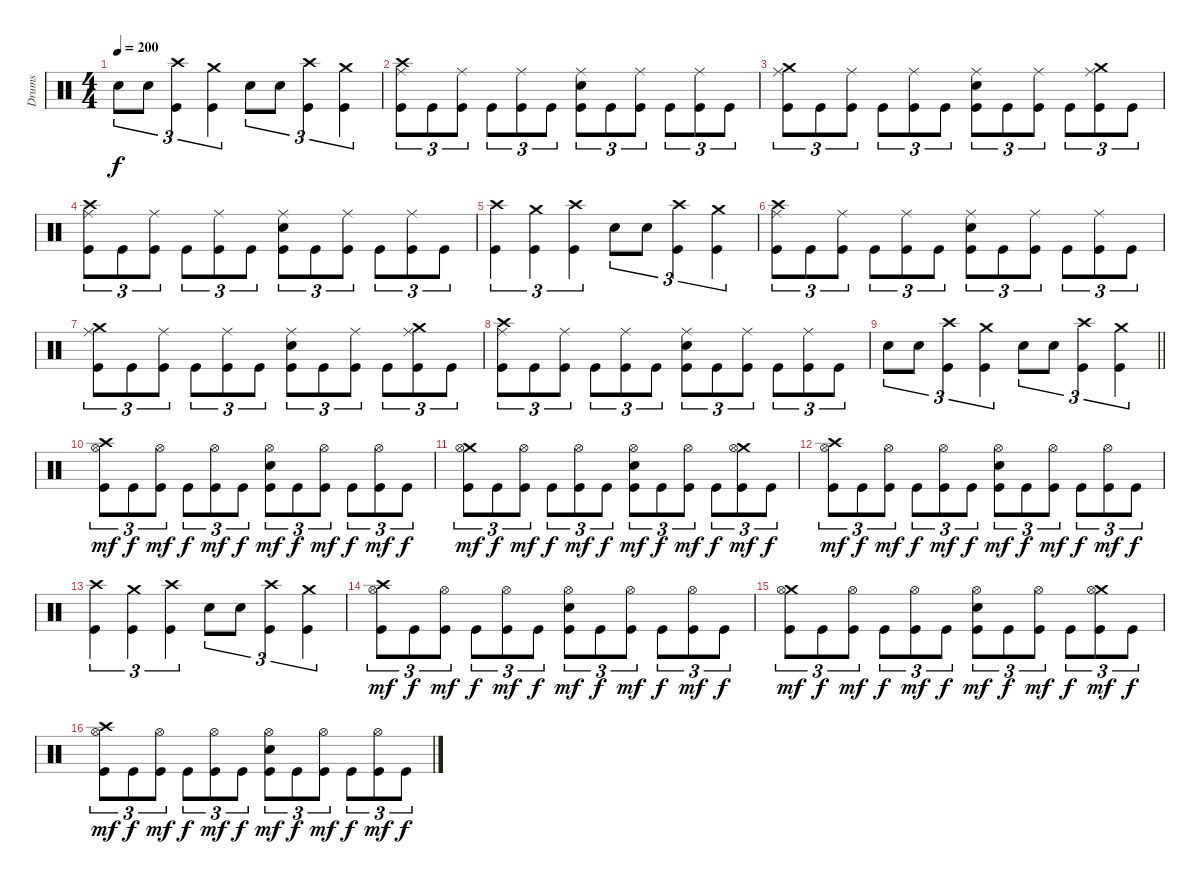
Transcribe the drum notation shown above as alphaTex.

\track ("Drums" "Drums") {instrument percussion}
\staff {score}
\articulation defaults
\ts (4 4)
\tempo 200
\clef neutral
\ks c "Electric Snare (hit)".8{tu (3 2) dy f} "Electric Snare (hit)".8{tu (3 2)}
("Crash high (hit)" "Kick (hit)").4{tu (3 2)} ("Crash medium (hit)" "Kick (hit)").4{tu (3 2)} "Electric Snare (hit)".8{tu (3 2)} "Electric Snare (hit)".8{tu (3 2)} ("Crash high (hit)" "Kick (hit)").4{tu (3 2)} ("Crash medium (hit)" "Kick (hit)").4{tu (3 2)} |
("Crash high (hit)" "Ride (middle)" "Kick (hit)").8{tu (3 2)} "Kick (hit)".8{tu (3 2)} ("Ride (middle)" "Kick (hit)").8{tu (3 2)} "Kick (hit)".8{tu (3 2)} ("Ride (middle)" "Kick (hit)").8{tu (3 2)} "Kick (hit)".8{tu (3 2)} ("Ride (middle)" "Electric Snare (hit)" "Kick (hit)").8{tu (3 2)} "Kick (hit)".8{tu (3 2)} ("Ride (middle)" "Kick (hit)").8{tu (3 2)} "Kick (hit)".8{tu (3 2)} ("Ride (middle)" "Kick (hit)").8{tu (3 2)} "Kick (hit)".8{tu (3 2)} |
("Crash medium (hit)" "Ride (middle)" "Kick (hit)").8{tu (3 2)} "Kick (hit)".8{tu (3 2)} ("Ride (middle)" "Kick (hit)").8{tu (3 2)} "Kick (hit)".8{tu (3 2)} ("Ride (middle)" "Kick (hit)").8{tu (3 2)} "Kick (hit)".8{tu (3 2)} ("Ride (middle)" "Electric Snare (hit)" "Kick (hit)").8{tu (3 2)} "Kick (hit)".8{tu (3 2)} ("Ride (middle)" "Kick (hit)").8{tu (3 2)} "Kick (hit)".8{tu (3 2)} ("Crash medium (hit)" "Ride (middle)" "Kick (hit)").8{tu (3 2)} "Kick (hit)".8{tu (3 2)} |
("Crash high (hit)" "Ride (middle)" "Kick (hit)").8{tu (3 2)} "Kick (hit)".8{tu (3 2)} ("Ride (middle)" "Kick (hit)").8{tu (3 2)} "Kick (hit)".8{tu (3 2)} ("Ride (middle)" "Kick (hit)").8{tu (3 2)} "Kick (hit)".8{tu (3 2)} ("Ride (middle)" "Electric Snare (hit)" "Kick (hit)").8{tu (3 2)} "Kick (hit)".8{tu (3 2)} ("Ride (middle)" "Kick (hit)").8{tu (3 2)} "Kick (hit)".8{tu (3 2)} ("Ride (middle)" "Kick (hit)").8{tu (3 2)} "Kick (hit)".8{tu (3 2)} |
("Crash high (hit)" "Kick (hit)").4{tu (3 2)} ("Crash medium (hit)" "Kick (hit)").4{tu (3 2)} ("Crash high (hit)" "Kick (hit)").4{tu (3 2)} "Electric Snare (hit)".8{tu (3 2)} "Electric Snare (hit)".8{tu (3 2)} ("Crash high (hit)" "Kick (hit)").4{tu (3 2)} ("Crash medium (hit)" "Kick (hit)").4{tu (3 2)} |
("Crash high (hit)" "Ride (middle)" "Kick (hit)").8{tu (3 2)} "Kick (hit)".8{tu (3 2)} ("Ride (middle)" "Kick (hit)").8{tu (3 2)} "Kick (hit)".8{tu (3 2)} ("Ride (middle)" "Kick (hit)").8{tu (3 2)} "Kick (hit)".8{tu (3 2)} ("Ride (middle)" "Electric Snare (hit)" "Kick (hit)").8{tu (3 2)} "Kick (hit)".8{tu (3 2)} ("Ride (middle)" "Kick (hit)").8{tu (3 2)} "Kick (hit)".8{tu (3 2)} ("Ride (middle)" "Kick (hit)").8{tu (3 2)} "Kick (hit)".8{tu (3 2)} |
("Crash medium (hit)" "Ride (middle)" "Kick (hit)").8{tu (3 2)} "Kick (hit)".8{tu (3 2)} ("Ride (middle)" "Kick (hit)").8{tu (3 2)} "Kick (hit)".8{tu (3 2)} ("Ride (middle)" "Kick (hit)").8{tu (3 2)} "Kick (hit)".8{tu (3 2)} ("Ride (middle)" "Electric Snare (hit)" "Kick (hit)").8{tu (3 2)} "Kick (hit)".8{tu (3 2)} ("Ride (middle)" "Kick (hit)").8{tu (3 2)} "Kick (hit)".8{tu (3 2)} ("Crash medium (hit)" "Ride (middle)" "Kick (hit)").8{tu (3 2)} "Kick (hit)".8{tu (3 2)} |
("Crash high (hit)" "Ride (middle)" "Kick (hit)").8{tu (3 2)} "Kick (hit)".8{tu (3 2)} ("Ride (middle)" "Kick (hit)").8{tu (3 2)} "Kick (hit)".8{tu (3 2)} ("Ride (middle)" "Kick (hit)").8{tu (3 2)} "Kick (hit)".8{tu (3 2)} ("Ride (middle)" "Electric Snare (hit)" "Kick (hit)").8{tu (3 2)} "Kick (hit)".8{tu (3 2)} ("Ride (middle)" "Kick (hit)").8{tu (3 2)} "Kick (hit)".8{tu (3 2)} ("Ride (middle)" "Kick (hit)").8{tu (3 2)} "Kick (hit)".8{tu (3 2)} |
\barLineRight lightlight "Electric Snare (hit)".8{tu (3 2)} "Electric Snare (hit)".8{tu (3 2)}
("Crash high (hit)" "Kick (hit)").4{tu (3 2)} ("Crash medium (hit)" "Kick (hit)").4{tu (3 2)} "Electric Snare (hit)".8{tu (3 2)} "Electric Snare (hit)".8{tu (3 2)} ("Crash high (hit)" "Kick (hit)").4{tu (3 2)} ("Crash medium (hit)" "Kick (hit)").4{tu (3 2)} |
\section ("" "")
("Crash high (hit)" "Hi-Hat (open)" "Kick (hit)").8{tu (3 2) dy mf} "Kick (hit)".8{tu (3 2) dy f} ("Hi-Hat (open)" "Kick (hit)").8{tu (3 2) dy mf} "Kick (hit)".8{tu (3 2) dy f} ("Hi-Hat (open)" "Kick (hit)").8{tu (3 2) dy mf} "Kick (hit)".8{tu (3 2) dy f} ("Hi-Hat (open)" "Electric Snare (hit)" "Kick (hit)").8{tu (3 2) dy mf} "Kick (hit)".8{tu (3 2) dy f} ("Hi-Hat (open)" "Kick (hit)").8{tu (3 2) dy mf} "Kick (hit)".8{tu (3 2) dy f} ("Hi-Hat (open)" "Kick (hit)").8{tu (3 2) dy mf} "Kick (hit)".8{tu (3 2) dy f} |
("Crash medium (hit)" "Hi-Hat (open)" "Kick (hit)").8{tu (3 2) dy mf} "Kick (hit)".8{tu (3 2) dy f} ("Hi-Hat (open)" "Kick (hit)").8{tu (3 2) dy mf} "Kick (hit)".8{tu (3 2) dy f} ("Hi-Hat (open)" "Kick (hit)").8{tu (3 2) dy mf} "Kick (hit)".8{tu (3 2) dy f} ("Hi-Hat (open)" "Electric Snare (hit)" "Kick (hit)").8{tu (3 2) dy mf} "Kick (hit)".8{tu (3 2) dy f} ("Hi-Hat (open)" "Kick (hit)").8{tu (3 2) dy mf} "Kick (hit)".8{tu (3 2) dy f} ("Crash medium (hit)" "Hi-Hat (open)" "Kick (hit)").8{tu (3 2) dy mf} "Kick (hit)".8{tu (3 2) dy f} |
("Crash high (hit)" "Hi-Hat (open)" "Kick (hit)").8{tu (3 2) dy mf} "Kick (hit)".8{tu (3 2) dy f} ("Hi-Hat (open)" "Kick (hit)").8{tu (3 2) dy mf} "Kick (hit)".8{tu (3 2) dy f} ("Hi-Hat (open)" "Kick (hit)").8{tu (3 2) dy mf} "Kick (hit)".8{tu (3 2) dy f} ("Hi-Hat (open)" "Electric Snare (hit)" "Kick (hit)").8{tu (3 2) dy mf} "Kick (hit)".8{tu (3 2) dy f} ("Hi-Hat (open)" "Kick (hit)").8{tu (3 2) dy mf} "Kick (hit)".8{tu (3 2) dy f} ("Hi-Hat (open)" "Kick (hit)").8{tu (3 2) dy mf} "Kick (hit)".8{tu (3 2) dy f} |
("Crash high (hit)" "Kick (hit)").4{tu (3 2)} ("Crash medium (hit)" "Kick (hit)").4{tu (3 2)} ("Crash high (hit)" "Kick (hit)").4{tu (3 2)} "Electric Snare (hit)".8{tu (3 2)} "Electric Snare (hit)".8{tu (3 2)} ("Crash high (hit)" "Kick (hit)").4{tu (3 2)} ("Crash medium (hit)" "Kick (hit)").4{tu (3 2)} |
("Crash high (hit)" "Hi-Hat (open)" "Kick (hit)").8{tu (3 2) dy mf} "Kick (hit)".8{tu (3 2) dy f} ("Hi-Hat (open)" "Kick (hit)").8{tu (3 2) dy mf} "Kick (hit)".8{tu (3 2) dy f} ("Hi-Hat (open)" "Kick (hit)").8{tu (3 2) dy mf} "Kick (hit)".8{tu (3 2) dy f} ("Hi-Hat (open)" "Electric Snare (hit)" "Kick (hit)").8{tu (3 2) dy mf} "Kick (hit)".8{tu (3 2) dy f} ("Hi-Hat (open)" "Kick (hit)").8{tu (3 2) dy mf} "Kick (hit)".8{tu (3 2) dy f} ("Hi-Hat (open)" "Kick (hit)").8{tu (3 2) dy mf} "Kick (hit)".8{tu (3 2) dy f} |
("Crash medium (hit)" "Hi-Hat (open)" "Kick (hit)").8{tu (3 2) dy mf} "Kick (hit)".8{tu (3 2) dy f} ("Hi-Hat (open)" "Kick (hit)").8{tu (3 2) dy mf} "Kick (hit)".8{tu (3 2) dy f} ("Hi-Hat (open)" "Kick (hit)").8{tu (3 2) dy mf} "Kick (hit)".8{tu (3 2) dy f} ("Hi-Hat (open)" "Electric Snare (hit)" "Kick (hit)").8{tu (3 2) dy mf} "Kick (hit)".8{tu (3 2) dy f} ("Hi-Hat (open)" "Kick (hit)").8{tu (3 2) dy mf} "Kick (hit)".8{tu (3 2) dy f} ("Crash medium (hit)" "Hi-Hat (open)" "Kick (hit)").8{tu (3 2) dy mf} "Kick (hit)".8{tu (3 2) dy f} |
("Crash high (hit)" "Hi-Hat (open)" "Kick (hit)").8{tu (3 2) dy mf} "Kick (hit)".8{tu (3 2) dy f} ("Hi-Hat (open)" "Kick (hit)").8{tu (3 2) dy mf} "Kick (hit)".8{tu (3 2) dy f} ("Hi-Hat (open)" "Kick (hit)").8{tu (3 2) dy mf} "Kick (hit)".8{tu (3 2) dy f} ("Hi-Hat (open)" "Electric Snare (hit)" "Kick (hit)").8{tu (3 2) dy mf} "Kick (hit)".8{tu (3 2) dy f} ("Hi-Hat (open)" "Kick (hit)").8{tu (3 2) dy mf} "Kick (hit)".8{tu (3 2) dy f} ("Hi-Hat (open)" "Kick (hit)").8{tu (3 2) dy mf} "Kick (hit)".8{tu (3 2) dy f}
